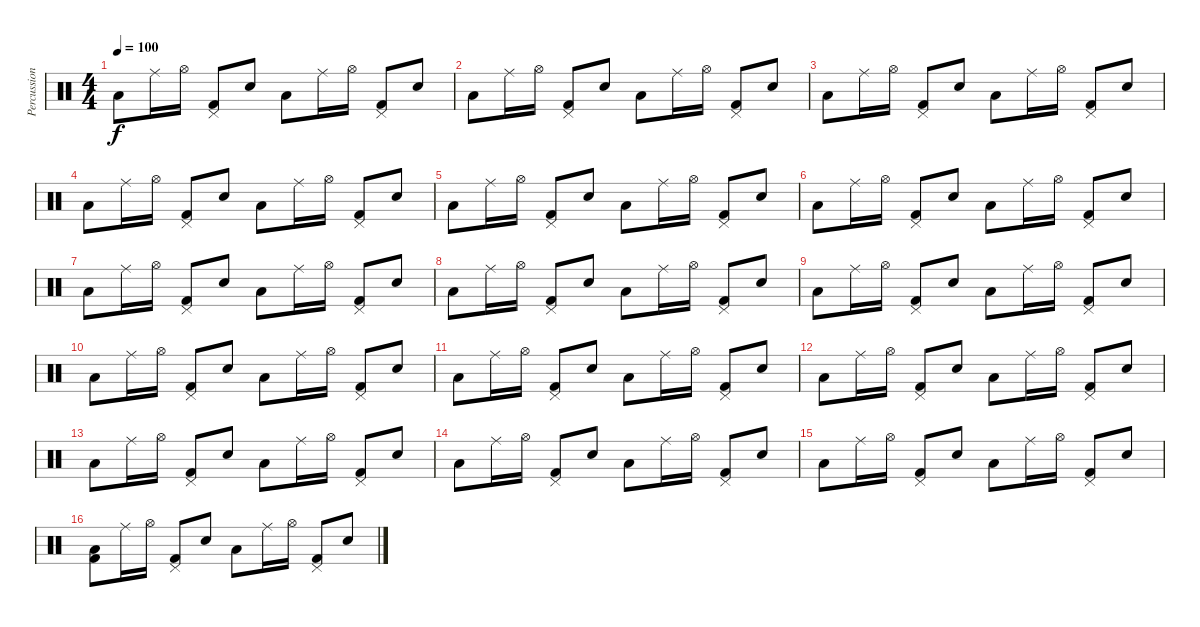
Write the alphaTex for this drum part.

\track ("Percussion" "Percussion") {instrument percussion}
\staff {score}
\articulation defaults
\ts (4 4)
\tempo 100
\clef neutral
\ks c "Low Tom (hit)".8{dy f} "Ride (middle)".16 "Hi-Hat (open)".16
("Pedal Hi-Hat (hit)" "Kick (hit) 2").8 "Electric Snare (hit)".8 "Low Tom (hit)".8 "Ride (middle)".16 "Hi-Hat (open)".16 ("Pedal Hi-Hat (hit)" "Kick (hit) 2").8 "Electric Snare (hit)".8 |
"Low Tom (hit)".8 "Ride (middle)".16 "Hi-Hat (open)".16 ("Pedal Hi-Hat (hit)" "Kick (hit) 2").8 "Electric Snare (hit)".8 "Low Tom (hit)".8 "Ride (middle)".16 "Hi-Hat (open)".16 ("Pedal Hi-Hat (hit)" "Kick (hit) 2").8 "Electric Snare (hit)".8 |
"Low Tom (hit)".8 "Ride (middle)".16 "Hi-Hat (open)".16 ("Pedal Hi-Hat (hit)" "Kick (hit) 2").8 "Electric Snare (hit)".8 "Low Tom (hit)".8 "Ride (middle)".16 "Hi-Hat (open)".16 ("Pedal Hi-Hat (hit)" "Kick (hit) 2").8 "Electric Snare (hit)".8 |
"Low Tom (hit)".8 "Ride (middle)".16 "Hi-Hat (open)".16 ("Pedal Hi-Hat (hit)" "Kick (hit) 2").8 "Electric Snare (hit)".8 "Low Tom (hit)".8 "Ride (middle)".16 "Hi-Hat (open)".16 ("Pedal Hi-Hat (hit)" "Kick (hit) 2").8 "Electric Snare (hit)".8 |
"Low Tom (hit)".8 "Ride (middle)".16 "Hi-Hat (open)".16 ("Pedal Hi-Hat (hit)" "Kick (hit) 2").8 "Electric Snare (hit)".8 "Low Tom (hit)".8 "Ride (middle)".16 "Hi-Hat (open)".16 ("Pedal Hi-Hat (hit)" "Kick (hit) 2").8 "Electric Snare (hit)".8 |
"Low Tom (hit)".8 "Ride (middle)".16 "Hi-Hat (open)".16 ("Pedal Hi-Hat (hit)" "Kick (hit) 2").8 "Electric Snare (hit)".8 "Low Tom (hit)".8 "Ride (middle)".16 "Hi-Hat (open)".16 ("Pedal Hi-Hat (hit)" "Kick (hit) 2").8 "Electric Snare (hit)".8 |
"Low Tom (hit)".8 "Ride (middle)".16 "Hi-Hat (open)".16 ("Pedal Hi-Hat (hit)" "Kick (hit) 2").8 "Electric Snare (hit)".8 "Low Tom (hit)".8 "Ride (middle)".16 "Hi-Hat (open)".16 ("Pedal Hi-Hat (hit)" "Kick (hit) 2").8 "Electric Snare (hit)".8 |
"Low Tom (hit)".8 "Ride (middle)".16 "Hi-Hat (open)".16 ("Pedal Hi-Hat (hit)" "Kick (hit) 2").8 "Electric Snare (hit)".8 "Low Tom (hit)".8 "Ride (middle)".16 "Hi-Hat (open)".16 ("Pedal Hi-Hat (hit)" "Kick (hit) 2").8 "Electric Snare (hit)".8 |
"Low Tom (hit)".8 "Ride (middle)".16 "Hi-Hat (open)".16 ("Pedal Hi-Hat (hit)" "Kick (hit) 2").8 "Electric Snare (hit)".8 "Low Tom (hit)".8 "Ride (middle)".16 "Hi-Hat (open)".16 ("Pedal Hi-Hat (hit)" "Kick (hit) 2").8 "Electric Snare (hit)".8 |
"Low Tom (hit)".8 "Ride (middle)".16 "Hi-Hat (open)".16 ("Pedal Hi-Hat (hit)" "Kick (hit) 2").8 "Electric Snare (hit)".8 "Low Tom (hit)".8 "Ride (middle)".16 "Hi-Hat (open)".16 ("Pedal Hi-Hat (hit)" "Kick (hit) 2").8 "Electric Snare (hit)".8 |
"Low Tom (hit)".8 "Ride (middle)".16 "Hi-Hat (open)".16 ("Pedal Hi-Hat (hit)" "Kick (hit) 2").8 "Electric Snare (hit)".8 "Low Tom (hit)".8 "Ride (middle)".16 "Hi-Hat (open)".16 ("Pedal Hi-Hat (hit)" "Kick (hit) 2").8 "Electric Snare (hit)".8 |
"Low Tom (hit)".8 "Ride (middle)".16 "Hi-Hat (open)".16 ("Pedal Hi-Hat (hit)" "Kick (hit) 2").8 "Electric Snare (hit)".8 "Low Tom (hit)".8 "Ride (middle)".16 "Hi-Hat (open)".16 ("Pedal Hi-Hat (hit)" "Kick (hit) 2").8 "Electric Snare (hit)".8 |
"Low Tom (hit)".8 "Ride (middle)".16 "Hi-Hat (open)".16 ("Pedal Hi-Hat (hit)" "Kick (hit) 2").8 "Electric Snare (hit)".8 "Low Tom (hit)".8 "Ride (middle)".16 "Hi-Hat (open)".16 ("Pedal Hi-Hat (hit)" "Kick (hit) 2").8 "Electric Snare (hit)".8 |
"Low Tom (hit)".8 "Ride (middle)".16 "Hi-Hat (open)".16 ("Pedal Hi-Hat (hit)" "Kick (hit) 2").8 "Electric Snare (hit)".8 "Low Tom (hit)".8 "Ride (middle)".16 "Hi-Hat (open)".16 ("Pedal Hi-Hat (hit)" "Kick (hit) 2").8 "Electric Snare (hit)".8 |
"Low Tom (hit)".8 "Ride (middle)".16 "Hi-Hat (open)".16 ("Pedal Hi-Hat (hit)" "Kick (hit) 2").8 "Electric Snare (hit)".8 "Low Tom (hit)".8 "Ride (middle)".16 "Hi-Hat (open)".16 ("Pedal Hi-Hat (hit)" "Kick (hit) 2").8 "Electric Snare (hit)".8 |
("Low Tom (hit)" "Kick (hit) 2").8 "Ride (middle)".16 "Hi-Hat (open)".16 ("Pedal Hi-Hat (hit)" "Kick (hit) 2").8 "Electric Snare (hit)".8 "Low Tom (hit)".8 "Ride (middle)".16 "Hi-Hat (open)".16 ("Pedal Hi-Hat (hit)" "Kick (hit) 2").8 "Electric Snare (hit)".8
